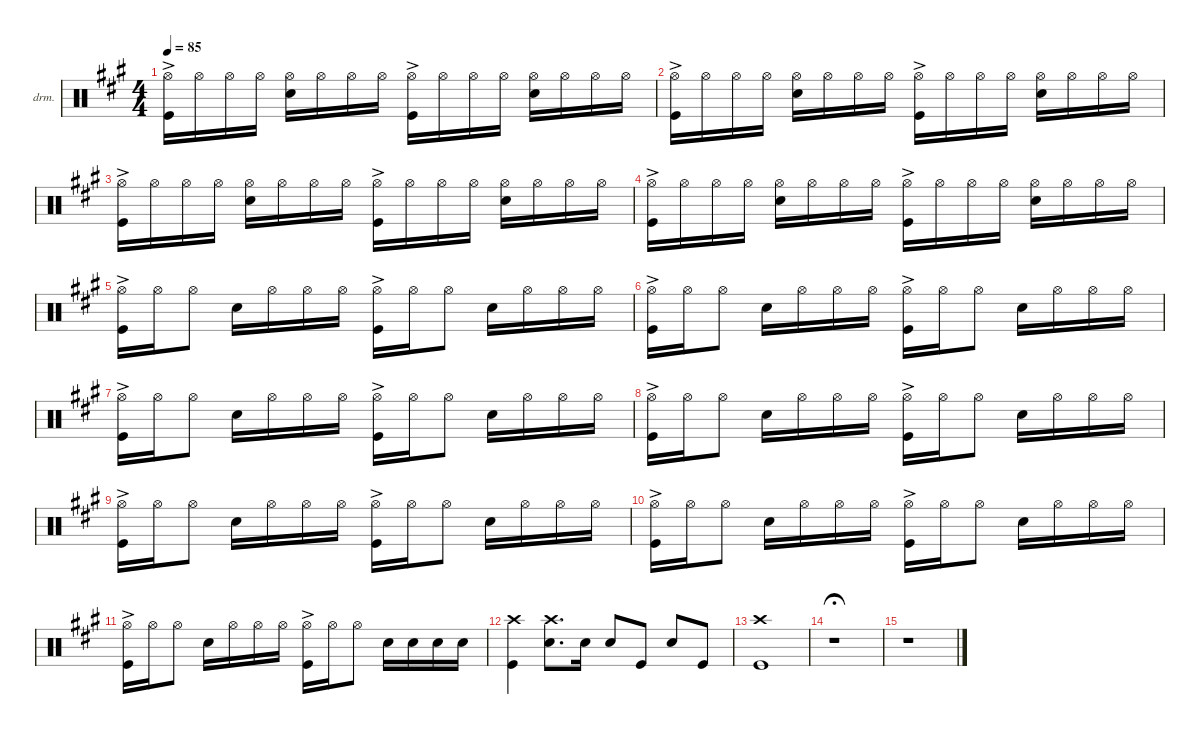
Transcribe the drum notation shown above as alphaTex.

\defaultSystemsLayout 4
\hideDynamics
\bracketExtendMode nobrackets
\firstSystemTrackNameOrientation horizontal
\otherSystemsTrackNameOrientation horizontal
\track ("Drums" "drm.") {instrument percussion}
\staff {score}
\articulation defaults
\ts (4 4)
\tempo 85
\clef neutral
\ks a
("Kick (hit)"{acc forcenatural} "Hi-Hat (open)"{ac acc forcenatural}).16{dy mf beam Down} "Hi-Hat (open)"{acc forcenatural}.16{beam Down} "Hi-Hat (open)"{acc forcenatural}.16{beam Down} "Hi-Hat (open)"{acc forcenatural}.16{beam Down} ("Hi-Hat (open)"{acc forcenatural} "Snare (hit) 2"{acc forcenatural}).16{beam Down} "Hi-Hat (open)"{acc forcenatural}.16{beam Down} "Hi-Hat (open)"{acc forcenatural}.16{beam Down} "Hi-Hat (open)"{acc forcenatural}.16{beam Down} ("Hi-Hat (open)"{ac acc forcenatural} "Kick (hit)"{acc forcenatural}).16{beam Down} "Hi-Hat (open)"{acc forcenatural}.16{beam Down} "Hi-Hat (open)"{acc forcenatural}.16{beam Down} "Hi-Hat (open)"{acc forcenatural}.16{beam Down} ("Hi-Hat (open)"{acc forcenatural} "Snare (hit) 2"{acc forcenatural}).16{beam Down} "Hi-Hat (open)"{acc forcenatural}.16{beam Down} "Hi-Hat (open)"{acc forcenatural}.16{beam Down} "Hi-Hat (open)"{acc forcenatural}.16{beam Down} |
("Kick (hit)"{acc forcenatural} "Hi-Hat (open)"{ac acc forcenatural}).16{beam Down} "Hi-Hat (open)"{acc forcenatural}.16{beam Down} "Hi-Hat (open)"{acc forcenatural}.16{beam Down} "Hi-Hat (open)"{acc forcenatural}.16{beam Down} ("Hi-Hat (open)"{acc forcenatural} "Snare (hit) 2"{acc forcenatural}).16{beam Down} "Hi-Hat (open)"{acc forcenatural}.16{beam Down} "Hi-Hat (open)"{acc forcenatural}.16{beam Down} "Hi-Hat (open)"{acc forcenatural}.16{beam Down} ("Hi-Hat (open)"{ac acc forcenatural} "Kick (hit)"{acc forcenatural}).16{beam Down} "Hi-Hat (open)"{acc forcenatural}.16{beam Down} "Hi-Hat (open)"{acc forcenatural}.16{beam Down} "Hi-Hat (open)"{acc forcenatural}.16{beam Down} ("Hi-Hat (open)"{acc forcenatural} "Snare (hit) 2"{acc forcenatural}).16{beam Down} "Hi-Hat (open)"{acc forcenatural}.16{beam Down} "Hi-Hat (open)"{acc forcenatural}.16{beam Down} "Hi-Hat (open)"{acc forcenatural}.16{beam Down} |
("Kick (hit)"{acc forcenatural} "Hi-Hat (open)"{ac acc forcenatural}).16{beam Down} "Hi-Hat (open)"{acc forcenatural}.16{beam Down} "Hi-Hat (open)"{acc forcenatural}.16{beam Down} "Hi-Hat (open)"{acc forcenatural}.16{beam Down} ("Hi-Hat (open)"{acc forcenatural} "Snare (hit) 2"{acc forcenatural}).16{beam Down} "Hi-Hat (open)"{acc forcenatural}.16{beam Down} "Hi-Hat (open)"{acc forcenatural}.16{beam Down} "Hi-Hat (open)"{acc forcenatural}.16{beam Down} ("Hi-Hat (open)"{ac acc forcenatural} "Kick (hit)"{acc forcenatural}).16{beam Down} "Hi-Hat (open)"{acc forcenatural}.16{beam Down} "Hi-Hat (open)"{acc forcenatural}.16{beam Down} "Hi-Hat (open)"{acc forcenatural}.16{beam Down} ("Hi-Hat (open)"{acc forcenatural} "Snare (hit) 2"{acc forcenatural}).16{beam Down} "Hi-Hat (open)"{acc forcenatural}.16{beam Down} "Hi-Hat (open)"{acc forcenatural}.16{beam Down} "Hi-Hat (open)"{acc forcenatural}.16{beam Down} |
("Kick (hit)"{acc forcenatural} "Hi-Hat (open)"{ac acc forcenatural}).16{beam Down} "Hi-Hat (open)"{acc forcenatural}.16{beam Down} "Hi-Hat (open)"{acc forcenatural}.16{beam Down} "Hi-Hat (open)"{acc forcenatural}.16{beam Down} ("Hi-Hat (open)"{acc forcenatural} "Snare (hit) 2"{acc forcenatural}).16{beam Down} "Hi-Hat (open)"{acc forcenatural}.16{beam Down} "Hi-Hat (open)"{acc forcenatural}.16{beam Down} "Hi-Hat (open)"{acc forcenatural}.16{beam Down} ("Hi-Hat (open)"{ac acc forcenatural} "Kick (hit)"{acc forcenatural}).16{beam Down} "Hi-Hat (open)"{acc forcenatural}.16{beam Down} "Hi-Hat (open)"{acc forcenatural}.16{beam Down} "Hi-Hat (open)"{acc forcenatural}.16{beam Down} ("Hi-Hat (open)"{acc forcenatural} "Snare (hit) 2"{acc forcenatural}).16{beam Down} "Hi-Hat (open)"{acc forcenatural}.16{beam Down} "Hi-Hat (open)"{acc forcenatural}.16{beam Down} "Hi-Hat (open)"{acc forcenatural}.16{beam Down} |
("Kick (hit)"{acc forcenatural} "Hi-Hat (open)"{ac acc forcenatural}).16{beam Down} "Hi-Hat (open)"{acc forcenatural}.16{beam Down} "Hi-Hat (open)"{acc forcenatural}.8{dy f beam Down} "Snare (hit) 2"{acc forcenatural}.16{dy mf beam Down} "Hi-Hat (open)"{acc forcenatural}.16{beam Down} "Hi-Hat (open)"{acc forcenatural}.16{beam Down} "Hi-Hat (open)"{acc forcenatural}.16{beam Down} ("Kick (hit)"{acc forcenatural} "Hi-Hat (open)"{ac acc forcenatural}).16{beam Down} "Hi-Hat (open)"{acc forcenatural}.16{beam Down} "Hi-Hat (open)"{acc forcenatural}.8{dy f beam Down} "Snare (hit) 2"{acc forcenatural}.16{dy mf beam Down} "Hi-Hat (open)"{acc forcenatural}.16{beam Down} "Hi-Hat (open)"{acc forcenatural}.16{beam Down} "Hi-Hat (open)"{acc forcenatural}.16{beam Down} |
("Kick (hit)"{acc forcenatural} "Hi-Hat (open)"{ac acc forcenatural}).16{beam Down} "Hi-Hat (open)"{acc forcenatural}.16{beam Down} "Hi-Hat (open)"{acc forcenatural}.8{dy f beam Down} "Snare (hit) 2"{acc forcenatural}.16{dy mf beam Down} "Hi-Hat (open)"{acc forcenatural}.16{beam Down} "Hi-Hat (open)"{acc forcenatural}.16{beam Down} "Hi-Hat (open)"{acc forcenatural}.16{beam Down} ("Kick (hit)"{acc forcenatural} "Hi-Hat (open)"{ac acc forcenatural}).16{beam Down} "Hi-Hat (open)"{acc forcenatural}.16{beam Down} "Hi-Hat (open)"{acc forcenatural}.8{dy f beam Down} "Snare (hit) 2"{acc forcenatural}.16{dy mf beam Down} "Hi-Hat (open)"{acc forcenatural}.16{beam Down} "Hi-Hat (open)"{acc forcenatural}.16{beam Down} "Hi-Hat (open)"{acc forcenatural}.16{beam Down} |
("Kick (hit)"{acc forcenatural} "Hi-Hat (open)"{ac acc forcenatural}).16{beam Down} "Hi-Hat (open)"{acc forcenatural}.16{beam Down} "Hi-Hat (open)"{acc forcenatural}.8{dy f beam Down} "Snare (hit) 2"{acc forcenatural}.16{dy mf beam Down} "Hi-Hat (open)"{acc forcenatural}.16{beam Down} "Hi-Hat (open)"{acc forcenatural}.16{beam Down} "Hi-Hat (open)"{acc forcenatural}.16{beam Down} ("Kick (hit)"{acc forcenatural} "Hi-Hat (open)"{ac acc forcenatural}).16{beam Down} "Hi-Hat (open)"{acc forcenatural}.16{beam Down} "Hi-Hat (open)"{acc forcenatural}.8{dy f beam Down} "Snare (hit) 2"{acc forcenatural}.16{dy mf beam Down} "Hi-Hat (open)"{acc forcenatural}.16{beam Down} "Hi-Hat (open)"{acc forcenatural}.16{beam Down} "Hi-Hat (open)"{acc forcenatural}.16{beam Down} |
("Kick (hit)"{acc forcenatural} "Hi-Hat (open)"{ac acc forcenatural}).16{beam Down} "Hi-Hat (open)"{acc forcenatural}.16{beam Down} "Hi-Hat (open)"{acc forcenatural}.8{dy f beam Down} "Snare (hit) 2"{acc forcenatural}.16{dy mf beam Down} "Hi-Hat (open)"{acc forcenatural}.16{beam Down} "Hi-Hat (open)"{acc forcenatural}.16{beam Down} "Hi-Hat (open)"{acc forcenatural}.16{beam Down} ("Kick (hit)"{acc forcenatural} "Hi-Hat (open)"{ac acc forcenatural}).16{beam Down} "Hi-Hat (open)"{acc forcenatural}.16{beam Down} "Hi-Hat (open)"{acc forcenatural}.8{dy f beam Down} "Snare (hit) 2"{acc forcenatural}.16{dy mf beam Down} "Hi-Hat (open)"{acc forcenatural}.16{beam Down} "Hi-Hat (open)"{acc forcenatural}.16{beam Down} "Hi-Hat (open)"{acc forcenatural}.16{beam Down} |
("Kick (hit)"{acc forcenatural} "Hi-Hat (open)"{ac acc forcenatural}).16{beam Down} "Hi-Hat (open)"{acc forcenatural}.16{beam Down} "Hi-Hat (open)"{acc forcenatural}.8{dy f beam Down} "Snare (hit) 2"{acc forcenatural}.16{dy mf beam Down} "Hi-Hat (open)"{acc forcenatural}.16{beam Down} "Hi-Hat (open)"{acc forcenatural}.16{beam Down} "Hi-Hat (open)"{acc forcenatural}.16{beam Down} ("Kick (hit)"{acc forcenatural} "Hi-Hat (open)"{ac acc forcenatural}).16{beam Down} "Hi-Hat (open)"{acc forcenatural}.16{beam Down} "Hi-Hat (open)"{acc forcenatural}.8{dy f beam Down} "Snare (hit) 2"{acc forcenatural}.16{dy mf beam Down} "Hi-Hat (open)"{acc forcenatural}.16{beam Down} "Hi-Hat (open)"{acc forcenatural}.16{beam Down} "Hi-Hat (open)"{acc forcenatural}.16{beam Down} |
("Kick (hit)"{acc forcenatural} "Hi-Hat (open)"{ac acc forcenatural}).16{beam Down} "Hi-Hat (open)"{acc forcenatural}.16{beam Down} "Hi-Hat (open)"{acc forcenatural}.8{dy f beam Down} "Snare (hit) 2"{acc forcenatural}.16{dy mf beam Down} "Hi-Hat (open)"{acc forcenatural}.16{beam Down} "Hi-Hat (open)"{acc forcenatural}.16{beam Down} "Hi-Hat (open)"{acc forcenatural}.16{beam Down} ("Kick (hit)"{acc forcenatural} "Hi-Hat (open)"{ac acc forcenatural}).16{beam Down} "Hi-Hat (open)"{acc forcenatural}.16{beam Down} "Hi-Hat (open)"{acc forcenatural}.8{dy f beam Down} "Snare (hit) 2"{acc forcenatural}.16{dy mf beam Down} "Hi-Hat (open)"{acc forcenatural}.16{beam Down} "Hi-Hat (open)"{acc forcenatural}.16{beam Down} "Hi-Hat (open)"{acc forcenatural}.16{beam Down} |
("Kick (hit)"{acc forcenatural} "Hi-Hat (open)"{ac acc forcenatural}).16{beam Down} "Hi-Hat (open)"{acc forcenatural}.16{beam Down} "Hi-Hat (open)"{acc forcenatural}.8{dy f beam Down} "Snare (hit) 2"{acc forcenatural}.16{dy mf beam Down} "Hi-Hat (open)"{acc forcenatural}.16{beam Down} "Hi-Hat (open)"{acc forcenatural}.16{beam Down} "Hi-Hat (open)"{acc forcenatural}.16{beam Down} ("Kick (hit)"{acc forcenatural} "Hi-Hat (open)"{ac acc forcenatural}).16{beam Down} "Hi-Hat (open)"{acc forcenatural}.16{beam Down} "Hi-Hat (open)"{acc forcenatural}.8{dy f beam Down} "Snare (hit) 2"{acc forcenatural}.16{dy mf beam Down} "Snare (hit) 2"{acc forcenatural}.16{beam Down} "Snare (hit) 2"{acc forcenatural}.16{beam Down} "Snare (hit) 2"{acc forcenatural}.16{beam Down} |
("Kick (hit)"{acc forcenatural} "Crash high (hit)"{acc forcenatural}).4{beam Down} ("Crash high (hit)"{acc forcenatural} "Snare (hit) 2"{acc forcenatural}).8{d beam Down} "Snare (hit) 2"{acc forcenatural}.16{beam Down} "Snare (hit) 2"{acc forcenatural}.8{beam Up} "Kick (hit)"{acc forcenatural}.8{beam Up} "Snare (hit) 2"{acc forcenatural}.8{beam Up} "Kick (hit)"{acc forcenatural}.8{beam Up} |
("Kick (hit)"{acc forcenatural} "Crash high (hit)"{acc forcenatural}).1{beam Down} |
r.1{fermata (medium 0.5) beam Down} |
r.1{beam Down}
